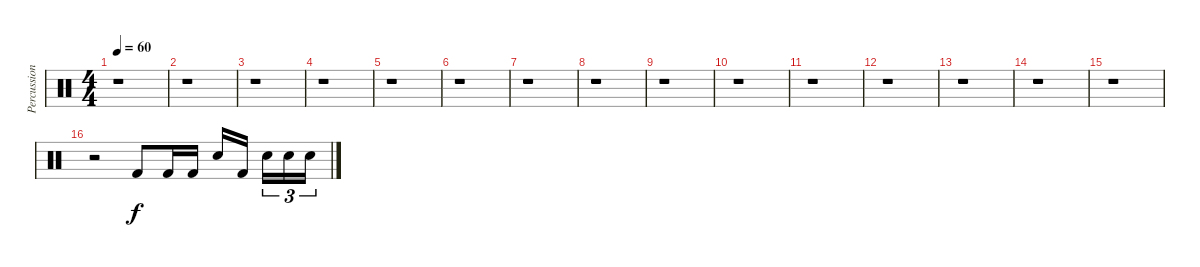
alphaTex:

\track ("Percussion" "Percussion") {instrument percussion}
\staff {score}
\articulation defaults
\ts (4 4)
\tempo 60
\clef neutral
\ks c
r.1{dy f} |
r.1 |
r.1 |
r.1 |
r.1 |
r.1 |
r.1 |
r.1 |
r.1 |
r.1 |
r.1 |
r.1 |
r.1 |
r.1 |
r.1 |
r.2 "Kick (hit) 2".8 "Kick (hit) 2".16 "Kick (hit) 2".16 "Snare (hit) 2".16 "Kick (hit) 2".16 "Snare (hit) 2".16{tu (3 2)} "Snare (hit) 2".16{tu (3 2)} "Snare (hit) 2".16{tu (3 2)}
